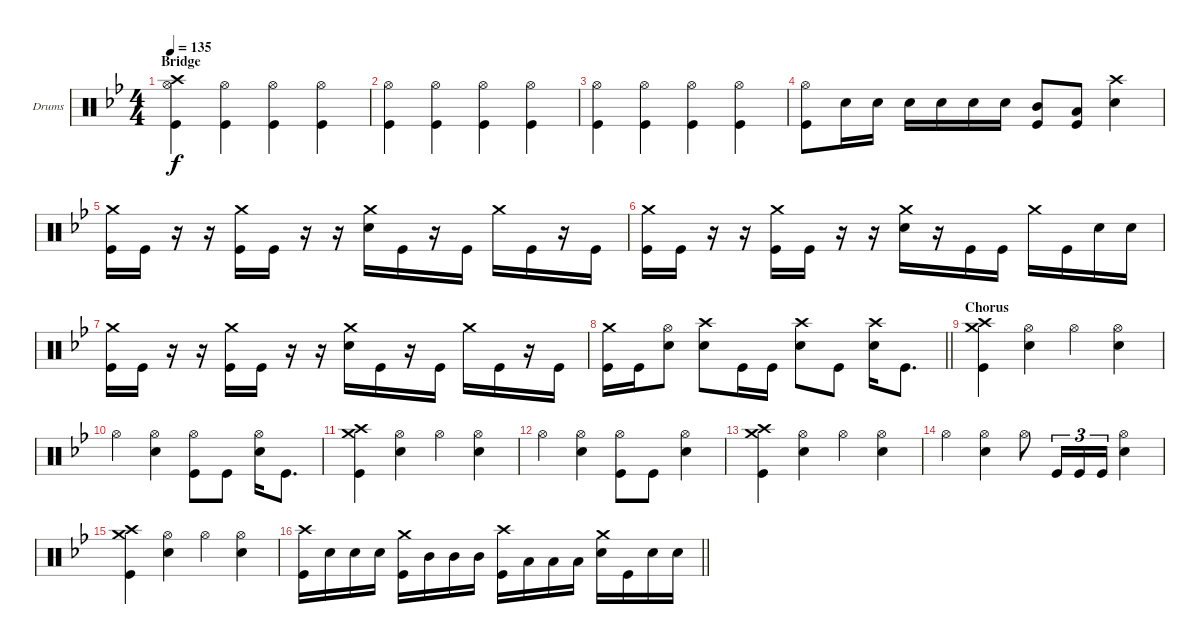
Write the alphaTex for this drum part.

\bracketExtendMode groupsimilarinstruments
\firstSystemTrackNameOrientation horizontal
\otherSystemsTrackNameOrientation horizontal
\track ("Drumkit" "Drums") {instrument percussion}
\staff {score}
\articulation defaults
\ts (4 4)
\section ("" "Bridge")
\tempo 135
\clef neutral
\ks gminor
("Crash high (hit)" "Hi-Hat (open)" "Kick (hit)").4{dy f} ("Hi-Hat (open)" "Kick (hit)").4 ("Hi-Hat (open)" "Kick (hit)").4 ("Hi-Hat (open)" "Kick (hit)").4 |
("Hi-Hat (open)" "Kick (hit)").4 ("Hi-Hat (open)" "Kick (hit)").4 ("Hi-Hat (open)" "Kick (hit)").4 ("Hi-Hat (open)" "Kick (hit)").4 |
("Hi-Hat (open)" "Kick (hit)").4 ("Hi-Hat (open)" "Kick (hit)").4 ("Hi-Hat (open)" "Kick (hit)").4 ("Hi-Hat (open)" "Kick (hit)").4 |
("Hi-Hat (open)" "Kick (hit)").8 "Snare (hit) 2".16 "Snare (hit) 2".16 "Snare (hit) 2".16 "Snare (hit) 2".16 "Snare (hit) 2".16 "Snare (hit) 2".16 ("Mid Tom (hit)" "Kick (hit)").8 ("Low Tom (hit)" "Kick (hit)").8 ("Crash high (hit)" "Snare (hit) 2").4 |
("Crash medium (hit)" "Kick (hit)").16 "Kick (hit)".16 r.16 r.16 ("Crash medium (hit)" "Kick (hit)").16 "Kick (hit)".16 r.16 r.16 ("Crash medium (hit)" "Snare (hit) 2").16 "Kick (hit)".16 r.16 "Kick (hit)".16 "Crash medium (hit)".16 "Kick (hit)".16 r.16 "Kick (hit)".16 |
("Crash medium (hit)" "Kick (hit)").16 "Kick (hit)".16 r.16 r.16 ("Crash medium (hit)" "Kick (hit)").16 "Kick (hit)".16 r.16 r.16 ("Crash medium (hit)" "Snare (hit) 2").16 r.16 "Kick (hit)".16 "Kick (hit)".16 "Crash medium (hit)".16 "Kick (hit)".16 "Snare (hit) 2".16 "Snare (hit) 2".16 |
("Crash medium (hit)" "Kick (hit)").16 "Kick (hit)".16 r.16 r.16 ("Crash medium (hit)" "Kick (hit)").16 "Kick (hit)".16 r.16 r.16 ("Crash medium (hit)" "Snare (hit) 2").16 "Kick (hit)".16 r.16 "Kick (hit)".16 "Crash medium (hit)".16 "Kick (hit)".16 r.16 "Kick (hit)".16 |
\barLineRight lightlight
("Crash medium (hit)" "Kick (hit)").16 "Kick (hit)".16 ("Hi-Hat (open)" "Snare (hit) 2").8 ("Crash high (hit)" "Snare (hit) 2").8 "Kick (hit)".16 "Kick (hit)".16 ("Crash high (hit)" "Snare (hit) 2").8 "Kick (hit)".8 ("Crash high (hit)" "Snare (hit) 2").16 "Kick (hit)".8{d} |
\section ("" "Chorus")
("Crash medium (hit)" "Crash high (hit)" "Kick (hit)").4 ("Hi-Hat (open)" "Snare (hit) 2").4 "Hi-Hat (open)".4 ("Hi-Hat (open)" "Snare (hit) 2").4 |
"Hi-Hat (open)".4 ("Hi-Hat (open)" "Snare (hit) 2").4 ("Hi-Hat (open)" "Kick (hit)").8 "Kick (hit)".8 ("Hi-Hat (open)" "Snare (hit) 2").16 "Kick (hit)".8{d} |
("Crash medium (hit)" "Crash high (hit)" "Kick (hit)").4 ("Hi-Hat (open)" "Snare (hit) 2").4 "Hi-Hat (open)".4 ("Hi-Hat (open)" "Snare (hit) 2").4 |
"Hi-Hat (open)".4 ("Hi-Hat (open)" "Snare (hit) 2").4 ("Hi-Hat (open)" "Kick (hit)").8 "Kick (hit)".8 ("Hi-Hat (open)" "Snare (hit) 2").4 |
("Crash medium (hit)" "Crash high (hit)" "Kick (hit)").4 ("Hi-Hat (open)" "Snare (hit) 2").4 "Hi-Hat (open)".4 ("Hi-Hat (open)" "Snare (hit) 2").4 |
"Hi-Hat (open)".4 ("Hi-Hat (open)" "Snare (hit) 2").4 "Hi-Hat (open)".8 "Kick (hit)".16{tu (3 2)} "Kick (hit)".16{tu (3 2)} "Kick (hit)".16{tu (3 2)} ("Hi-Hat (open)" "Snare (hit) 2").4 |
("Crash medium (hit)" "Crash high (hit)" "Kick (hit)").4 ("Hi-Hat (open)" "Snare (hit) 2").4 "Hi-Hat (open)".4 ("Hi-Hat (open)" "Snare (hit) 2").4 |
\barLineRight lightlight
("Crash high (hit)" "Kick (hit)").16 "Snare (hit) 2".16 "Snare (hit) 2".16 "Snare (hit) 2".16 ("Crash medium (hit)" "Kick (hit)").16 "Mid Tom (hit)".16 "Mid Tom (hit)".16 "Mid Tom (hit)".16 ("Crash high (hit)" "Kick (hit)").16 "Low Tom (hit)".16 "Low Tom (hit)".16 "Low Tom (hit)".16 ("Crash medium (hit)" "Snare (hit) 2").16 "Kick (hit)".16 "Snare (hit) 2".16 "Snare (hit) 2".16
